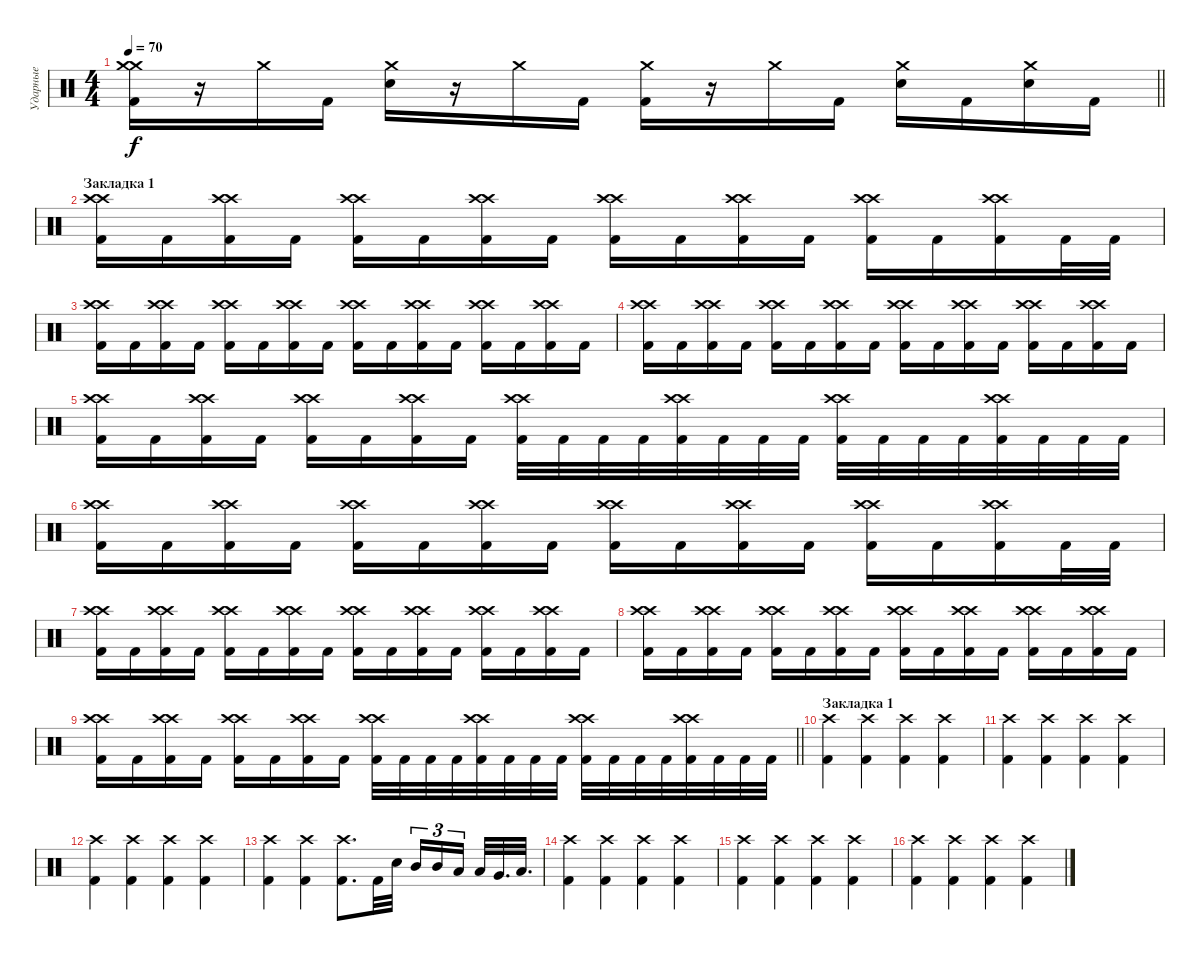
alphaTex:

\track ("Ударные" "Ударные") {instrument percussion}
\staff {score}
\articulation defaults
\ts (4 4)
\tempo 70
\clef neutral
\barLineRight lightlight
\ks c
("Crash medium (hit)" "Crash medium (hit)" "Kick (hit) 2").16{dy f} r.16 "Crash medium (hit)".16 "Kick (hit) 2".16 ("Crash medium (hit)" "Electric Snare (hit)").16 r.16 "Crash medium (hit)".16 "Kick (hit) 2".16 ("Crash medium (hit)" "Kick (hit) 2").16 r.16 "Crash medium (hit)".16 "Kick (hit) 2".16 ("Crash medium (hit)" "Electric Snare (hit)").16 "Kick (hit) 2".16 ("Crash medium (hit)" "Electric Snare (hit)").16 "Kick (hit) 2".16 |
\section ("" "Закладка 1")
("Crash high (hit)" "Crash high (hit)" "Kick (hit) 2").16{volume 16} "Kick (hit) 2".16 ("Crash high (hit)" "Crash high (hit)" "Kick (hit) 2").16 "Kick (hit) 2".16 ("Crash high (hit)" "Crash high (hit)" "Kick (hit) 2").16 "Kick (hit) 2".16 ("Crash high (hit)" "Crash high (hit)" "Kick (hit) 2").16 "Kick (hit) 2".16 ("Crash high (hit)" "Crash high (hit)" "Kick (hit) 2").16 "Kick (hit) 2".16 ("Crash high (hit)" "Crash high (hit)" "Kick (hit) 2").16 "Kick (hit) 2".16 ("Crash high (hit)" "Crash high (hit)" "Kick (hit) 2").16 "Kick (hit) 2".16 ("Crash high (hit)" "Crash high (hit)" "Kick (hit) 2").16 "Kick (hit) 2".32 "Kick (hit) 2".32 |
("Crash high (hit)" "Crash high (hit)" "Kick (hit) 2").16{volume 16} "Kick (hit) 2".16 ("Crash high (hit)" "Crash high (hit)" "Kick (hit) 2").16 "Kick (hit) 2".16 ("Crash high (hit)" "Crash high (hit)" "Kick (hit) 2").16 "Kick (hit) 2".16 ("Crash high (hit)" "Crash high (hit)" "Kick (hit) 2").16 "Kick (hit) 2".16 ("Crash high (hit)" "Crash high (hit)" "Kick (hit) 2").16 "Kick (hit) 2".16 ("Crash high (hit)" "Crash high (hit)" "Kick (hit) 2").16 "Kick (hit) 2".16 ("Crash high (hit)" "Crash high (hit)" "Kick (hit) 2").16 "Kick (hit) 2".16 ("Crash high (hit)" "Crash high (hit)" "Kick (hit) 2").16 "Kick (hit) 2".16 |
("Crash high (hit)" "Crash high (hit)" "Kick (hit) 2").16{volume 16} "Kick (hit) 2".16 ("Crash high (hit)" "Crash high (hit)" "Kick (hit) 2").16 "Kick (hit) 2".16 ("Crash high (hit)" "Crash high (hit)" "Kick (hit) 2").16 "Kick (hit) 2".16 ("Crash high (hit)" "Crash high (hit)" "Kick (hit) 2").16 "Kick (hit) 2".16 ("Crash high (hit)" "Crash high (hit)" "Kick (hit) 2").16 "Kick (hit) 2".16 ("Crash high (hit)" "Crash high (hit)" "Kick (hit) 2").16 "Kick (hit) 2".16 ("Crash high (hit)" "Crash high (hit)" "Kick (hit) 2").16 "Kick (hit) 2".16 ("Crash high (hit)" "Crash high (hit)" "Kick (hit) 2").16 "Kick (hit) 2".16 |
("Crash high (hit)" "Crash high (hit)" "Kick (hit) 2").16 "Kick (hit) 2".16 ("Crash high (hit)" "Crash high (hit)" "Kick (hit) 2").16 "Kick (hit) 2".16 ("Crash high (hit)" "Crash high (hit)" "Kick (hit) 2").16 "Kick (hit) 2".16 ("Crash high (hit)" "Crash high (hit)" "Kick (hit) 2").16 "Kick (hit) 2".16 ("Crash high (hit)" "Crash high (hit)" "Kick (hit) 2").32{volume 16} "Kick (hit) 2".32 "Kick (hit) 2".32 "Kick (hit) 2".32 ("Crash high (hit)" "Crash high (hit)" "Kick (hit) 2").32 "Kick (hit) 2".32 "Kick (hit) 2".32 "Kick (hit) 2".32 ("Crash high (hit)" "Crash high (hit)" "Kick (hit) 2").32 "Kick (hit) 2".32 "Kick (hit) 2".32 "Kick (hit) 2".32 ("Crash high (hit)" "Crash high (hit)" "Kick (hit) 2").32 "Kick (hit) 2".32 "Kick (hit) 2".32 "Kick (hit) 2".32 |
("Crash high (hit)" "Crash high (hit)" "Kick (hit) 2").16{volume 16} "Kick (hit) 2".16 ("Crash high (hit)" "Crash high (hit)" "Kick (hit) 2").16 "Kick (hit) 2".16 ("Crash high (hit)" "Crash high (hit)" "Kick (hit) 2").16 "Kick (hit) 2".16 ("Crash high (hit)" "Crash high (hit)" "Kick (hit) 2").16 "Kick (hit) 2".16 ("Crash high (hit)" "Crash high (hit)" "Kick (hit) 2").16 "Kick (hit) 2".16 ("Crash high (hit)" "Crash high (hit)" "Kick (hit) 2").16 "Kick (hit) 2".16 ("Crash high (hit)" "Crash high (hit)" "Kick (hit) 2").16 "Kick (hit) 2".16 ("Crash high (hit)" "Crash high (hit)" "Kick (hit) 2").16 "Kick (hit) 2".32 "Kick (hit) 2".32 |
("Crash high (hit)" "Crash high (hit)" "Kick (hit) 2").16{volume 16} "Kick (hit) 2".16 ("Crash high (hit)" "Crash high (hit)" "Kick (hit) 2").16 "Kick (hit) 2".16 ("Crash high (hit)" "Crash high (hit)" "Kick (hit) 2").16 "Kick (hit) 2".16 ("Crash high (hit)" "Crash high (hit)" "Kick (hit) 2").16 "Kick (hit) 2".16 ("Crash high (hit)" "Crash high (hit)" "Kick (hit) 2").16 "Kick (hit) 2".16 ("Crash high (hit)" "Crash high (hit)" "Kick (hit) 2").16 "Kick (hit) 2".16 ("Crash high (hit)" "Crash high (hit)" "Kick (hit) 2").16 "Kick (hit) 2".16 ("Crash high (hit)" "Crash high (hit)" "Kick (hit) 2").16 "Kick (hit) 2".16 |
("Crash high (hit)" "Crash high (hit)" "Kick (hit) 2").16{volume 16} "Kick (hit) 2".16 ("Crash high (hit)" "Crash high (hit)" "Kick (hit) 2").16 "Kick (hit) 2".16 ("Crash high (hit)" "Crash high (hit)" "Kick (hit) 2").16 "Kick (hit) 2".16 ("Crash high (hit)" "Crash high (hit)" "Kick (hit) 2").16 "Kick (hit) 2".16 ("Crash high (hit)" "Crash high (hit)" "Kick (hit) 2").16 "Kick (hit) 2".16 ("Crash high (hit)" "Crash high (hit)" "Kick (hit) 2").16 "Kick (hit) 2".16 ("Crash high (hit)" "Crash high (hit)" "Kick (hit) 2").16 "Kick (hit) 2".16 ("Crash high (hit)" "Crash high (hit)" "Kick (hit) 2").16 "Kick (hit) 2".16 |
\barLineRight lightlight
("Crash high (hit)" "Crash high (hit)" "Kick (hit) 2").16 "Kick (hit) 2".16 ("Crash high (hit)" "Crash high (hit)" "Kick (hit) 2").16 "Kick (hit) 2".16 ("Crash high (hit)" "Crash high (hit)" "Kick (hit) 2").16 "Kick (hit) 2".16 ("Crash high (hit)" "Crash high (hit)" "Kick (hit) 2").16 "Kick (hit) 2".16 ("Crash high (hit)" "Crash high (hit)" "Kick (hit) 2").32{volume 16} "Kick (hit) 2".32 "Kick (hit) 2".32 "Kick (hit) 2".32 ("Crash high (hit)" "Crash high (hit)" "Kick (hit) 2").32 "Kick (hit) 2".32 "Kick (hit) 2".32 "Kick (hit) 2".32 ("Crash high (hit)" "Crash high (hit)" "Kick (hit) 2").32 "Kick (hit) 2".32 "Kick (hit) 2".32 "Kick (hit) 2".32 ("Crash high (hit)" "Crash high (hit)" "Kick (hit) 2").32 "Kick (hit) 2".32 "Kick (hit) 2".32 "Kick (hit) 2".32 |
\section ("" "Закладка 1")
("Crash high (hit)" "Kick (hit) 2").4 ("Crash high (hit)" "Kick (hit) 2").4 ("Crash high (hit)" "Kick (hit) 2").4 ("Crash high (hit)" "Kick (hit) 2").4 |
("Crash high (hit)" "Kick (hit) 2").4 ("Crash high (hit)" "Kick (hit) 2").4 ("Crash high (hit)" "Kick (hit) 2").4 ("Crash high (hit)" "Kick (hit) 2").4 |
("Crash high (hit)" "Kick (hit) 2").4 ("Crash high (hit)" "Kick (hit) 2").4 ("Crash high (hit)" "Kick (hit) 2").4 ("Crash high (hit)" "Kick (hit) 2").4 |
("Crash high (hit)" "Kick (hit) 2").4 ("Crash high (hit)" "Kick (hit) 2").4 ("Crash high (hit)" "Kick (hit) 2").8{d} "Kick (hit) 2".32 "Electric Snare (hit)".32 "Mid Tom (hit)".16{tu (3 2)} "Mid Tom (hit)".16{tu (3 2)} "Low Tom (hit)".16{tu (3 2) beam splitsecondary} "Low Tom (hit)".32 "Very Low Tom (hit)".32{d} "Low Floor Tom (hit)".32{d} |
("Crash high (hit)" "Kick (hit) 2").4 ("Crash high (hit)" "Kick (hit) 2").4 ("Crash high (hit)" "Kick (hit) 2").4 ("Crash high (hit)" "Kick (hit) 2").4 |
("Crash high (hit)" "Kick (hit) 2").4 ("Crash high (hit)" "Kick (hit) 2").4 ("Crash high (hit)" "Kick (hit) 2").4 ("Crash high (hit)" "Kick (hit) 2").4 |
("Crash high (hit)" "Kick (hit) 2").4 ("Crash high (hit)" "Kick (hit) 2").4 ("Crash high (hit)" "Kick (hit) 2").4 ("Crash high (hit)" "Kick (hit) 2").4
